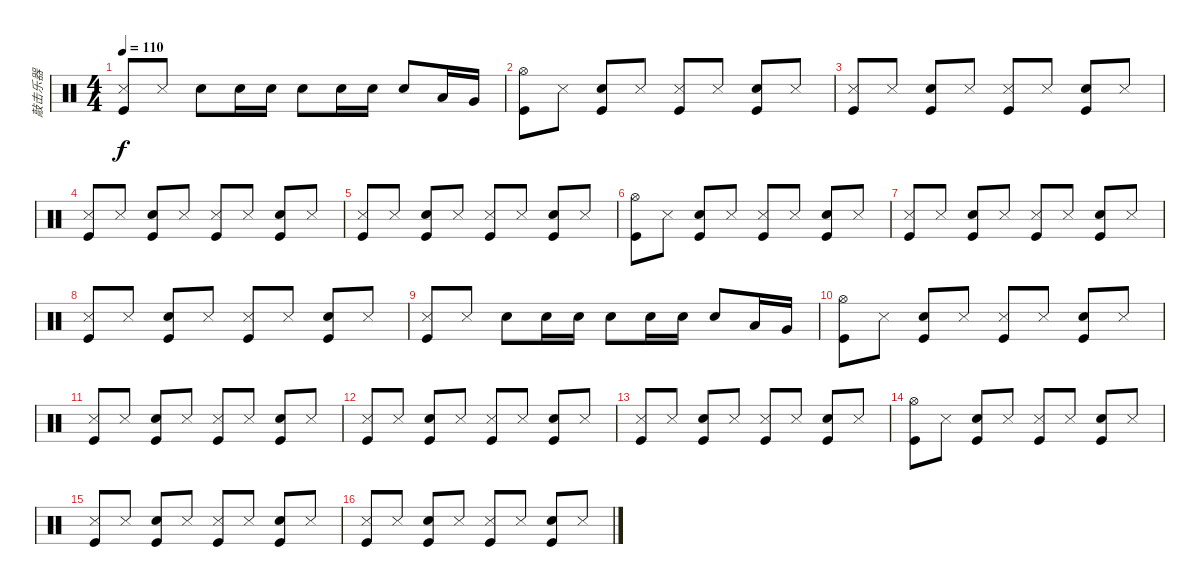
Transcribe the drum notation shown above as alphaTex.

\track ("敲击乐器" "敲击乐器") {instrument percussion}
\staff {score}
\articulation defaults
\ts (4 4)
\tempo 110
\clef neutral
\ks c
("Snare (side stick) 3" "Kick (hit)").8{dy f} "Snare (side stick) 3".8 "Snare (hit) 2".8 "Snare (hit) 2".16 "Snare (hit) 2".16 "Snare (hit) 2".8 "Snare (hit) 2".16 "Snare (hit) 2".16 "Snare (hit) 2".8 "Low Tom (hit)".16 "Very Low Tom (hit)".16 |
("Hi-Hat (open)" "Kick (hit)").8 "Snare (side stick) 3".8 ("Snare (hit) 2" "Kick (hit)").8 "Snare (side stick) 3".8 ("Snare (side stick) 3" "Kick (hit)").8 "Snare (side stick) 3".8 ("Snare (hit) 2" "Kick (hit)").8 "Snare (side stick) 3".8 |
("Snare (side stick) 3" "Kick (hit)").8 "Snare (side stick) 3".8 ("Snare (hit) 2" "Kick (hit)").8 "Snare (side stick) 3".8 ("Snare (side stick) 3" "Kick (hit)").8 "Snare (side stick) 3".8 ("Snare (hit) 2" "Kick (hit)").8 "Snare (side stick) 3".8 |
("Snare (side stick) 3" "Kick (hit)").8 "Snare (side stick) 3".8 ("Snare (hit) 2" "Kick (hit)").8 "Snare (side stick) 3".8 ("Snare (side stick) 3" "Kick (hit)").8 "Snare (side stick) 3".8 ("Snare (hit) 2" "Kick (hit)").8 "Snare (side stick) 3".8 |
("Snare (side stick) 3" "Kick (hit)").8 "Snare (side stick) 3".8 ("Snare (hit) 2" "Kick (hit)").8 "Snare (side stick) 3".8 ("Snare (side stick) 3" "Kick (hit)").8 "Snare (side stick) 3".8 ("Snare (hit) 2" "Kick (hit)").8 "Snare (side stick) 3".8 |
("Hi-Hat (open)" "Kick (hit)").8 "Snare (side stick) 3".8 ("Snare (hit) 2" "Kick (hit)").8 "Snare (side stick) 3".8 ("Snare (side stick) 3" "Kick (hit)").8 "Snare (side stick) 3".8 ("Snare (hit) 2" "Kick (hit)").8 "Snare (side stick) 3".8 |
("Snare (side stick) 3" "Kick (hit)").8 "Snare (side stick) 3".8 ("Snare (hit) 2" "Kick (hit)").8 "Snare (side stick) 3".8 ("Snare (side stick) 3" "Kick (hit)").8 "Snare (side stick) 3".8 ("Snare (hit) 2" "Kick (hit)").8 "Snare (side stick) 3".8 |
("Snare (side stick) 3" "Kick (hit)").8 "Snare (side stick) 3".8 ("Snare (hit) 2" "Kick (hit)").8 "Snare (side stick) 3".8 ("Snare (side stick) 3" "Kick (hit)").8 "Snare (side stick) 3".8 ("Snare (hit) 2" "Kick (hit)").8 "Snare (side stick) 3".8 |
("Snare (side stick) 3" "Kick (hit)").8 "Snare (side stick) 3".8 "Snare (hit) 2".8 "Snare (hit) 2".16 "Snare (hit) 2".16 "Snare (hit) 2".8 "Snare (hit) 2".16 "Snare (hit) 2".16 "Snare (hit) 2".8 "Low Tom (hit)".16 "Very Low Tom (hit)".16 |
("Hi-Hat (open)" "Kick (hit)").8 "Snare (side stick) 3".8 ("Snare (hit) 2" "Kick (hit)").8 "Snare (side stick) 3".8 ("Snare (side stick) 3" "Kick (hit)").8 "Snare (side stick) 3".8 ("Snare (hit) 2" "Kick (hit)").8 "Snare (side stick) 3".8 |
("Snare (side stick) 3" "Kick (hit)").8 "Snare (side stick) 3".8 ("Snare (hit) 2" "Kick (hit)").8 "Snare (side stick) 3".8 ("Snare (side stick) 3" "Kick (hit)").8 "Snare (side stick) 3".8 ("Snare (hit) 2" "Kick (hit)").8 "Snare (side stick) 3".8 |
("Snare (side stick) 3" "Kick (hit)").8 "Snare (side stick) 3".8 ("Snare (hit) 2" "Kick (hit)").8 "Snare (side stick) 3".8 ("Snare (side stick) 3" "Kick (hit)").8 "Snare (side stick) 3".8 ("Snare (hit) 2" "Kick (hit)").8 "Snare (side stick) 3".8 |
("Snare (side stick) 3" "Kick (hit)").8 "Snare (side stick) 3".8 ("Snare (hit) 2" "Kick (hit)").8 "Snare (side stick) 3".8 ("Snare (side stick) 3" "Kick (hit)").8 "Snare (side stick) 3".8 ("Snare (hit) 2" "Kick (hit)").8 "Snare (side stick) 3".8 |
("Hi-Hat (open)" "Kick (hit)").8 "Snare (side stick) 3".8 ("Snare (hit) 2" "Kick (hit)").8 "Snare (side stick) 3".8 ("Snare (side stick) 3" "Kick (hit)").8 "Snare (side stick) 3".8 ("Snare (hit) 2" "Kick (hit)").8 "Snare (side stick) 3".8 |
("Snare (side stick) 3" "Kick (hit)").8 "Snare (side stick) 3".8 ("Snare (hit) 2" "Kick (hit)").8 "Snare (side stick) 3".8 ("Snare (side stick) 3" "Kick (hit)").8 "Snare (side stick) 3".8 ("Snare (hit) 2" "Kick (hit)").8 "Snare (side stick) 3".8 |
("Snare (side stick) 3" "Kick (hit)").8 "Snare (side stick) 3".8 ("Snare (hit) 2" "Kick (hit)").8 "Snare (side stick) 3".8 ("Snare (side stick) 3" "Kick (hit)").8 "Snare (side stick) 3".8 ("Snare (hit) 2" "Kick (hit)").8 "Snare (side stick) 3".8
